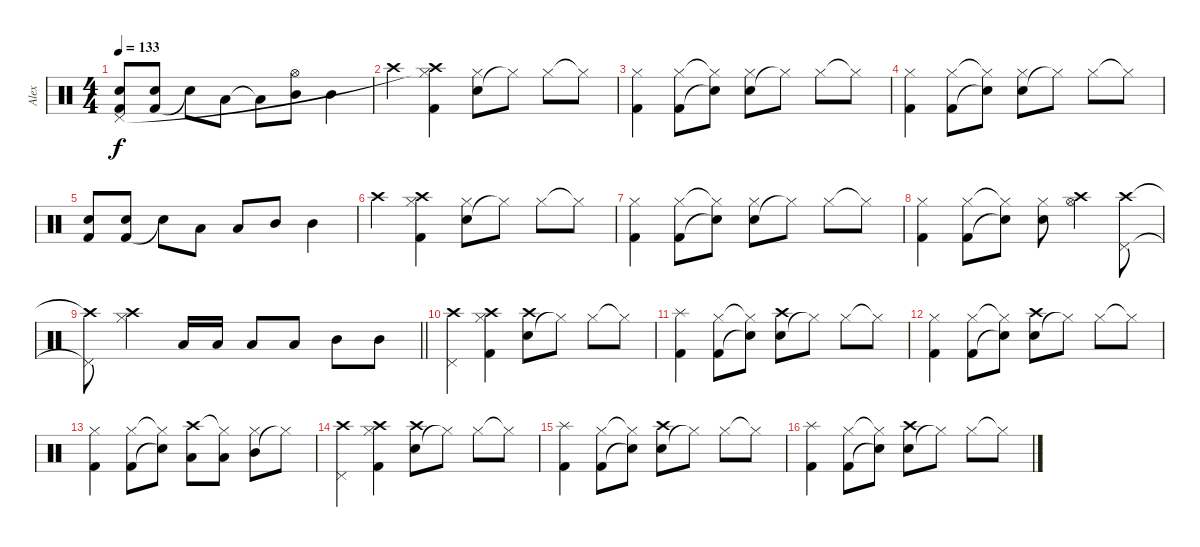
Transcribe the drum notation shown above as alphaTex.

\track ("Alex" "Alex") {instrument percussion}
\staff {score}
\articulation defaults
\ts (4 4)
\tempo 133
\clef neutral
\ks c
("Kick (hit) 2" "Electric Snare (hit)" "Pedal Hi-Hat (hit)").8{dy f} ("Kick (hit) 2" "Electric Snare (hit)").8 "Electric Snare (hit)"{t}.8 "Low Tom (hit)".8 "Low Tom (hit)"{t}.8 ("Mid Tom (hit)" "Hi-Hat (open)").8 "Mid Tom (hit)".4 |
"Crash high (hit)".4 ("Kick (hit) 2" "Hi-Hat (closed)" "Crash high (hit)"{t}).4 ("Electric Snare (hit)" "Hi-Hat (closed)").8 "Hi-Hat (closed)"{t}.8 "Hi-Hat (closed)".8 "Hi-Hat (closed)"{t}.8 |
("Kick (hit) 2" "Hi-Hat (closed)").4 ("Kick (hit) 2" "Hi-Hat (closed)").8 ("Electric Snare (hit)"{t} "Hi-Hat (closed)"{t}).8 ("Electric Snare (hit)" "Hi-Hat (closed)").8 "Hi-Hat (closed)"{t}.8 "Hi-Hat (closed)".8 "Hi-Hat (closed)"{t}.8 |
("Kick (hit) 2" "Hi-Hat (closed)").4 ("Kick (hit) 2" "Hi-Hat (closed)").8 ("Electric Snare (hit)"{t} "Hi-Hat (closed)"{t}).8 ("Electric Snare (hit)" "Hi-Hat (closed)").8 "Hi-Hat (closed)"{t}.8 "Hi-Hat (closed)".8 "Hi-Hat (closed)"{t}.8 |
("Kick (hit) 2" "Electric Snare (hit)").8 ("Kick (hit) 2" "Electric Snare (hit)").8 "Electric Snare (hit)"{t}.8 "Low Tom (hit)".8 "Low Tom (hit)".8 "Mid Tom (hit)".8 "Mid Tom (hit)".4 |
"Crash high (hit)".4 ("Kick (hit) 2" "Hi-Hat (closed)" "Crash high (hit)").4 ("Electric Snare (hit)" "Hi-Hat (closed)").8 "Hi-Hat (closed)"{t}.8 "Hi-Hat (closed)".8 "Hi-Hat (closed)"{t}.8 |
("Kick (hit) 2" "Hi-Hat (closed)").4 ("Kick (hit) 2" "Hi-Hat (closed)").8 ("Electric Snare (hit)"{t} "Hi-Hat (closed)"{t}).8 ("Electric Snare (hit)" "Hi-Hat (closed)").8 "Hi-Hat (closed)"{t}.8 "Hi-Hat (closed)".8 "Hi-Hat (closed)"{t}.8 |
("Kick (hit) 2" "Hi-Hat (closed)").4 ("Kick (hit) 2" "Hi-Hat (closed)").8 ("Electric Snare (hit)"{t} "Hi-Hat (closed)"{t}).8 ("Electric Snare (hit)" "Hi-Hat (closed)").8 ("Hi-Hat (open)" "Crash high (hit)").4 ("Pedal Hi-Hat (hit)" "Crash high (hit)").8 |
\barLineRight lightlight
("Pedal Hi-Hat (hit)"{t} "Crash high (hit)"{t}).8 ("Hi-Hat (closed)" "Crash high (hit)").4 "Low Floor Tom (hit)".16 "Low Tom (hit)".16 "Low Tom (hit)".8 "Low Tom (hit)".8 "Mid Tom (hit)".8 "Mid Tom (hit)".8 |
("Pedal Hi-Hat (hit)" "Crash high (hit)").4 ("Kick (hit) 2" "Hi-Hat (closed)" "Crash high (hit)").4 ("Electric Snare (hit)" "Crash high (hit)").8 "Hi-Hat (closed)"{t}.8 "Hi-Hat (closed)".8 "Hi-Hat (closed)"{t}.8 |
("Kick (hit) 2" "Splash (hit)").4 ("Kick (hit) 2" "Hi-Hat (closed)").8 ("Electric Snare (hit)"{t} "Hi-Hat (closed)"{t}).8 ("Electric Snare (hit)" "Crash high (hit)").8 "Hi-Hat (closed)"{t}.8 "Hi-Hat (closed)".8 "Hi-Hat (closed)"{t}.8 |
("Kick (hit) 2" "Hi-Hat (closed)").4 ("Kick (hit) 2" "Hi-Hat (closed)").8 ("Electric Snare (hit)"{t} "Hi-Hat (closed)"{t}).8 ("Electric Snare (hit)" "Crash high (hit)").8 "Hi-Hat (closed)"{t}.8 "Hi-Hat (closed)".8 "Hi-Hat (closed)"{t}.8 |
("Kick (hit) 2" "Hi-Hat (closed)").4 ("Kick (hit) 2" "Hi-Hat (closed)").8 ("Electric Snare (hit)"{t} "Hi-Hat (closed)"{t}).8 ("Low Tom (hit)" "Crash high (hit)").8 ("Low Tom (hit)" "Hi-Hat (closed)"{t}).8 ("Mid Tom (hit)" "Hi-Hat (closed)").8 "Hi-Hat (closed)"{t}.8 |
("Pedal Hi-Hat (hit)" "Crash high (hit)").4 ("Kick (hit) 2" "Hi-Hat (closed)" "Crash high (hit)").4 ("Electric Snare (hit)" "Crash high (hit)").8 "Hi-Hat (closed)"{t}.8 "Hi-Hat (closed)".8 "Hi-Hat (closed)"{t}.8 |
("Kick (hit) 2" "Splash (hit)").4 ("Kick (hit) 2" "Hi-Hat (closed)").8 ("Electric Snare (hit)"{t} "Hi-Hat (closed)"{t}).8 ("Electric Snare (hit)" "Crash high (hit)").8 "Hi-Hat (closed)"{t}.8 "Hi-Hat (closed)".8 "Hi-Hat (closed)"{t}.8 |
("Kick (hit) 2" "Splash (hit)").4 ("Kick (hit) 2" "Hi-Hat (closed)").8 ("Electric Snare (hit)"{t} "Hi-Hat (closed)"{t}).8 ("Electric Snare (hit)" "Crash high (hit)").8 "Hi-Hat (closed)"{t}.8 "Hi-Hat (closed)".8 "Hi-Hat (closed)"{t}.8
